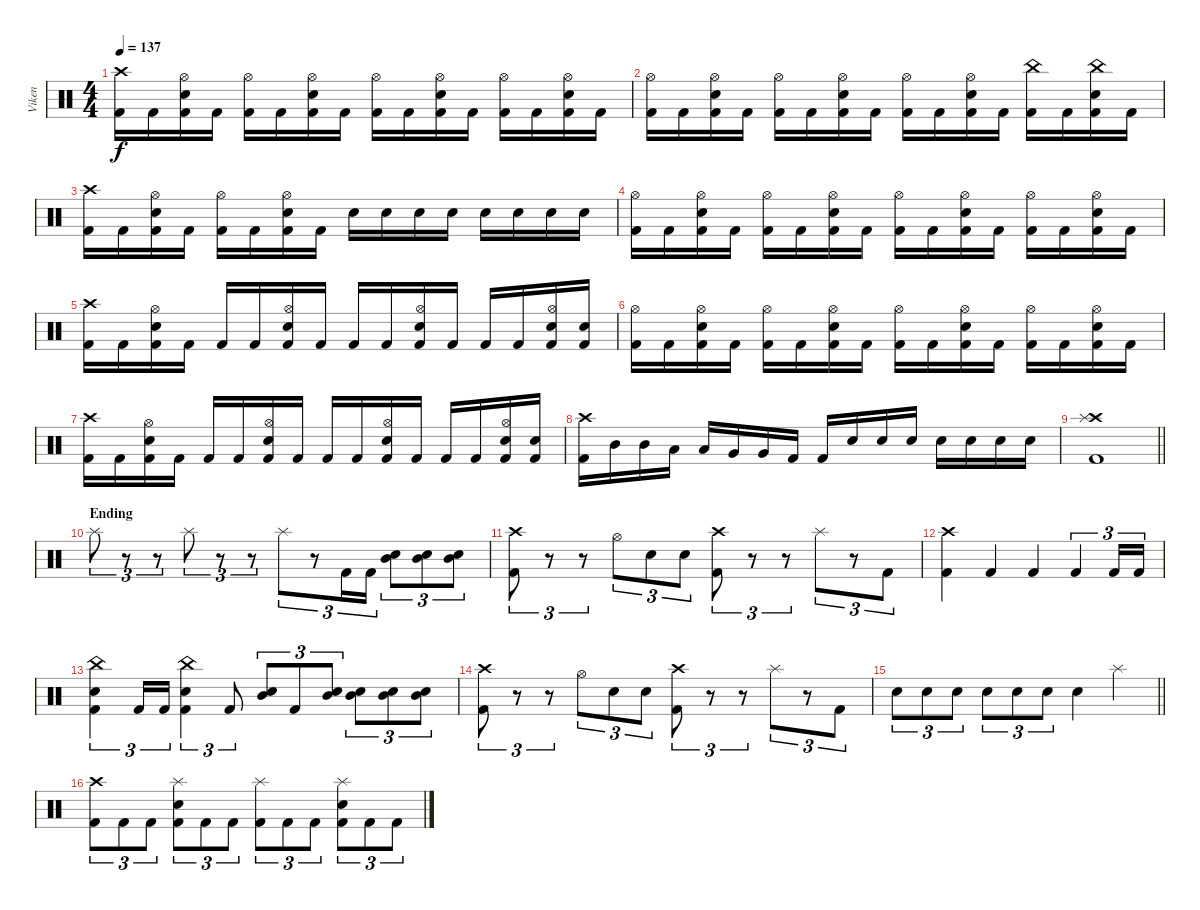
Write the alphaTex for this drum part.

\track ("Viken" "Viken") {instrument percussion}
\staff {score}
\articulation defaults
\ts (4 4)
\tempo 137
\clef neutral
\ks c
("Crash high (hit)" "Kick (hit) 2").16{dy f} "Kick (hit) 2".16 ("Hi-Hat (open)" "Electric Snare (hit)" "Kick (hit) 2").16 "Kick (hit) 2".16 ("Hi-Hat (open)" "Kick (hit) 2").16 "Kick (hit) 2".16 ("Hi-Hat (open)" "Electric Snare (hit)" "Kick (hit) 2").16 "Kick (hit) 2".16 ("Hi-Hat (open)" "Kick (hit) 2").16 "Kick (hit) 2".16 ("Hi-Hat (open)" "Electric Snare (hit)" "Kick (hit) 2").16 "Kick (hit) 2".16 ("Hi-Hat (open)" "Kick (hit) 2").16 "Kick (hit) 2".16 ("Hi-Hat (open)" "Electric Snare (hit)" "Kick (hit) 2").16 "Kick (hit) 2".16 |
("Hi-Hat (open)" "Kick (hit) 2").16 "Kick (hit) 2".16 ("Hi-Hat (open)" "Electric Snare (hit)" "Kick (hit) 2").16 "Kick (hit) 2".16 ("Hi-Hat (open)" "Kick (hit) 2").16 "Kick (hit) 2".16 ("Hi-Hat (open)" "Electric Snare (hit)" "Kick (hit) 2").16 "Kick (hit) 2".16 ("Hi-Hat (open)" "Kick (hit) 2").16 "Kick (hit) 2".16 ("Hi-Hat (open)" "Electric Snare (hit)" "Kick (hit) 2").16 "Kick (hit) 2".16 ("China (hit)" "Kick (hit) 2").16 "Kick (hit) 2".16 ("China (hit)" "Electric Snare (hit)" "Kick (hit) 2").16 "Kick (hit) 2".16 |
("Crash high (hit)" "Kick (hit) 2").16 "Kick (hit) 2".16 ("Hi-Hat (open)" "Electric Snare (hit)" "Kick (hit) 2").16 "Kick (hit) 2".16 ("Hi-Hat (open)" "Kick (hit) 2").16 "Kick (hit) 2".16 ("Hi-Hat (open)" "Electric Snare (hit)" "Kick (hit) 2").16 "Kick (hit) 2".16 "Electric Snare (hit)".16 "Electric Snare (hit)".16 "Electric Snare (hit)".16 "Electric Snare (hit)".16 "Electric Snare (hit)".16 "Electric Snare (hit)".16 "Electric Snare (hit)".16 "Electric Snare (hit)".16 |
("Hi-Hat (open)" "Kick (hit) 2").16 "Kick (hit) 2".16 ("Hi-Hat (open)" "Electric Snare (hit)" "Kick (hit) 2").16 "Kick (hit) 2".16 ("Hi-Hat (open)" "Kick (hit) 2").16 "Kick (hit) 2".16 ("Hi-Hat (open)" "Electric Snare (hit)" "Kick (hit) 2").16 "Kick (hit) 2".16 ("Hi-Hat (open)" "Kick (hit) 2").16 "Kick (hit) 2".16 ("Hi-Hat (open)" "Electric Snare (hit)" "Kick (hit) 2").16 "Kick (hit) 2".16 ("Hi-Hat (open)" "Kick (hit) 2").16 "Kick (hit) 2".16 ("Hi-Hat (open)" "Electric Snare (hit)" "Kick (hit) 2").16 "Kick (hit) 2".16 |
("Crash high (hit)" "Kick (hit) 2").16 "Kick (hit) 2".16 ("Hi-Hat (open)" "Electric Snare (hit)" "Kick (hit) 2").16 "Kick (hit) 2".16 "Kick (hit) 2".16 "Kick (hit) 2".16 ("Hi-Hat (open)" "Electric Snare (hit)" "Kick (hit) 2").16 "Kick (hit) 2".16 "Kick (hit) 2".16 "Kick (hit) 2".16 ("Hi-Hat (open)" "Electric Snare (hit)" "Kick (hit) 2").16 "Kick (hit) 2".16 "Kick (hit) 2".16 "Kick (hit) 2".16 ("Hi-Hat (open)" "Electric Snare (hit)" "Kick (hit) 2").16 ("Electric Snare (hit)" "Kick (hit) 2").16 |
("Hi-Hat (open)" "Kick (hit) 2").16 "Kick (hit) 2".16 ("Hi-Hat (open)" "Electric Snare (hit)" "Kick (hit) 2").16 "Kick (hit) 2".16 ("Hi-Hat (open)" "Kick (hit) 2").16 "Kick (hit) 2".16 ("Hi-Hat (open)" "Electric Snare (hit)" "Kick (hit) 2").16 "Kick (hit) 2".16 ("Hi-Hat (open)" "Kick (hit) 2").16 "Kick (hit) 2".16 ("Hi-Hat (open)" "Electric Snare (hit)" "Kick (hit) 2").16 "Kick (hit) 2".16 ("Hi-Hat (open)" "Kick (hit) 2").16 "Kick (hit) 2".16 ("Hi-Hat (open)" "Electric Snare (hit)" "Kick (hit) 2").16 "Kick (hit) 2".16 |
("Crash high (hit)" "Kick (hit) 2").16 "Kick (hit) 2".16 ("Hi-Hat (open)" "Electric Snare (hit)" "Kick (hit) 2").16 "Kick (hit) 2".16 "Kick (hit) 2".16 "Kick (hit) 2".16 ("Hi-Hat (open)" "Electric Snare (hit)" "Kick (hit) 2").16 "Kick (hit) 2".16 "Kick (hit) 2".16 "Kick (hit) 2".16 ("Hi-Hat (open)" "Electric Snare (hit)" "Kick (hit) 2").16 "Kick (hit) 2".16 "Kick (hit) 2".16 "Kick (hit) 2".16 ("Hi-Hat (open)" "Electric Snare (hit)" "Kick (hit) 2").16 ("Electric Snare (hit)" "Kick (hit) 2").16 |
("Crash high (hit)" "Kick (hit) 2").16 "Mid Tom (hit)".16 "Mid Tom (hit)".16 "Low Tom (hit)".16 "Low Tom (hit)".16 "Very Low Tom (hit)".16 "Very Low Tom (hit)".16 "Kick (hit) 2".16 "Kick (hit) 2".16 "Electric Snare (hit)".16 "Electric Snare (hit)".16 "Electric Snare (hit)".16 "Electric Snare (hit)".16 "Electric Snare (hit)".16 "Electric Snare (hit)".16 "Electric Snare (hit)".16 |
\barLineRight lightlight
("Crash high (hit)" "Splash (hit)" "Kick (hit) 2").1 |
\section ("" "Ending")
"Splash (hit)".8{tu (3 2)} r.8{tu (3 2)} r.8{tu (3 2)} "Splash (hit)".8{tu (3 2)} r.8{tu (3 2)} r.8{tu (3 2)} "Splash (hit)".8{tu (3 2)} r.8{tu (3 2)} "Kick (hit) 2".16{tu (3 2)} "Kick (hit) 2".16{tu (3 2)} ("Mid Tom (hit)" "Electric Snare (hit)").8{tu (3 2)} ("Mid Tom (hit)" "Electric Snare (hit)").8{tu (3 2)} ("Mid Tom (hit)" "Electric Snare (hit)").8{tu (3 2)} |
("Crash high (hit)" "Kick (hit) 2").8{tu (3 2)} r.8{tu (3 2)} r.8{tu (3 2)} "Hi-Hat (open)".8{tu (3 2)} "Electric Snare (hit)".8{tu (3 2)} "Electric Snare (hit)".8{tu (3 2)} ("Crash high (hit)" "Kick (hit) 2").8{tu (3 2)} r.8{tu (3 2)} r.8{tu (3 2)} "Splash (hit)".8{tu (3 2)} r.8{tu (3 2)} "Kick (hit) 2".8{tu (3 2)} |
("Crash high (hit)" "Kick (hit) 2").4 "Kick (hit) 2".4 "Kick (hit) 2".4 "Kick (hit) 2".4{tu (3 2)} "Kick (hit) 2".16{tu (3 2)} "Kick (hit) 2".16{tu (3 2)} |
("China (hit)" "Electric Snare (hit)" "Kick (hit) 2").4{tu (3 2)} "Kick (hit) 2".16{tu (3 2)} "Kick (hit) 2".16{tu (3 2)} ("China (hit)" "Electric Snare (hit)" "Kick (hit) 2").4{tu (3 2)} "Kick (hit) 2".8{tu (3 2)} ("Mid Tom (hit)" "Electric Snare (hit)").8{tu (3 2)} "Kick (hit) 2".8{tu (3 2)} ("Mid Tom (hit)" "Electric Snare (hit)").8{tu (3 2)} ("Mid Tom (hit)" "Electric Snare (hit)").8{tu (3 2)} ("Mid Tom (hit)" "Electric Snare (hit)").8{tu (3 2)} ("Mid Tom (hit)" "Electric Snare (hit)").8{tu (3 2)} |
("Crash high (hit)" "Kick (hit) 2").8{tu (3 2)} r.8{tu (3 2)} r.8{tu (3 2)} "Hi-Hat (open)".8{tu (3 2)} "Electric Snare (hit)".8{tu (3 2)} "Electric Snare (hit)".8{tu (3 2)} ("Crash high (hit)" "Kick (hit) 2").8{tu (3 2)} r.8{tu (3 2)} r.8{tu (3 2)} "Splash (hit)".8{tu (3 2)} r.8{tu (3 2)} "Kick (hit) 2".8{tu (3 2)} |
\barLineRight lightlight "Electric Snare (hit)".8{tu (3 2)} "Electric Snare (hit)".8{tu (3 2)} "Electric Snare (hit)".8{tu (3 2)} "Electric Snare (hit)".8{tu (3 2)} "Electric Snare (hit)".8{tu (3 2)} "Electric Snare (hit)".8{tu (3 2)} "Electric Snare (hit)".4 "Splash (hit)".4
|
("Crash high (hit)" "Kick (hit) 2").8{tu (3 2)} "Kick (hit) 2".8{tu (3 2)} "Kick (hit) 2".8{tu (3 2)} ("Splash (hit)" "Electric Snare (hit)" "Kick (hit) 2").8{tu (3 2)} "Kick (hit) 2".8{tu (3 2)} "Kick (hit) 2".8{tu (3 2)} ("Splash (hit)" "Kick (hit) 2").8{tu (3 2)} "Kick (hit) 2".8{tu (3 2)} "Kick (hit) 2".8{tu (3 2)} ("Splash (hit)" "Electric Snare (hit)" "Kick (hit) 2").8{tu (3 2)} "Kick (hit) 2".8{tu (3 2)} "Kick (hit) 2".8{tu (3 2)}
